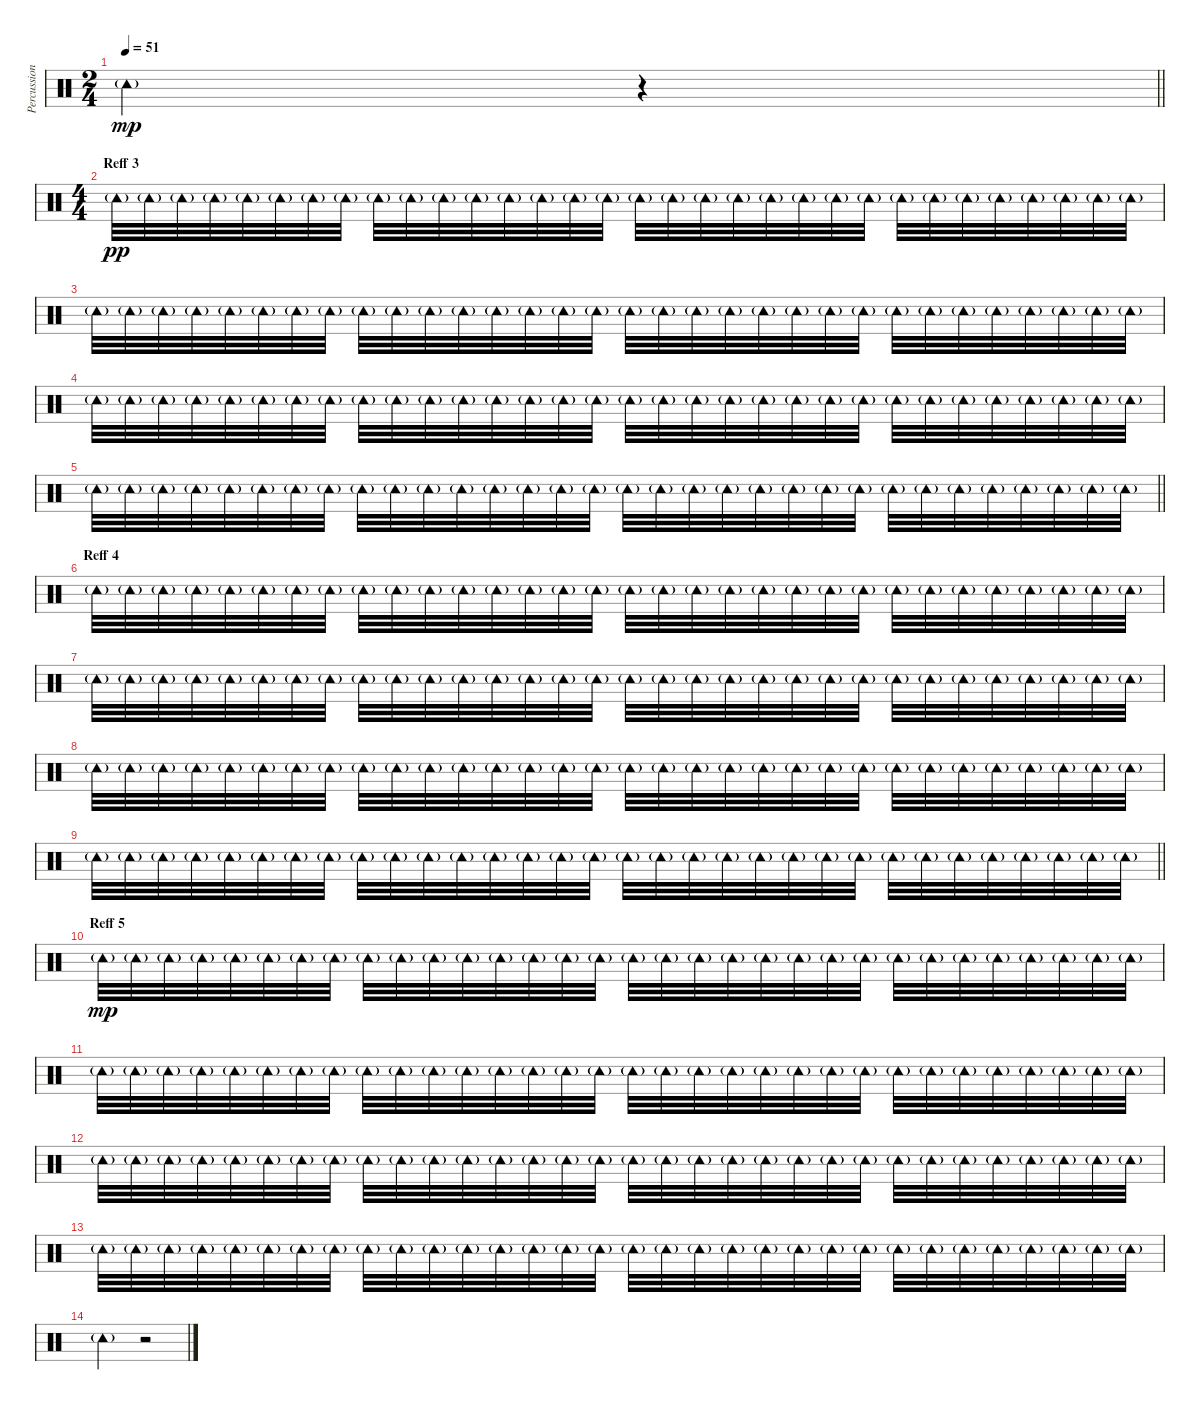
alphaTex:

\track ("Percussion 2" "Percussion") {instrument percussion}
\staff {score}
\articulation defaults
\ts (2 4)
\tempo 51
\clef neutral
\barLineRight lightlight
\ks c "Tambourine (hit)"{g}.4{dy mp}
r.4 |
\ts (4 4)
\section ("" "Reff 3")
"Tambourine (hit)"{g}.32{dy pp} "Tambourine (hit)"{g}.32 "Tambourine (hit)"{g}.32 "Tambourine (hit)"{g}.32 "Tambourine (hit)"{g}.32 "Tambourine (hit)"{g}.32 "Tambourine (hit)"{g}.32 "Tambourine (hit)"{g}.32 "Tambourine (hit)"{g}.32 "Tambourine (hit)"{g}.32 "Tambourine (hit)"{g}.32 "Tambourine (hit)"{g}.32 "Tambourine (hit)"{g}.32 "Tambourine (hit)"{g}.32 "Tambourine (hit)"{g}.32 "Tambourine (hit)"{g}.32 "Tambourine (hit)"{g}.32 "Tambourine (hit)"{g}.32 "Tambourine (hit)"{g}.32 "Tambourine (hit)"{g}.32 "Tambourine (hit)"{g}.32 "Tambourine (hit)"{g}.32 "Tambourine (hit)"{g}.32 "Tambourine (hit)"{g}.32 "Tambourine (hit)"{g}.32 "Tambourine (hit)"{g}.32 "Tambourine (hit)"{g}.32 "Tambourine (hit)"{g}.32 "Tambourine (hit)"{g}.32 "Tambourine (hit)"{g}.32 "Tambourine (hit)"{g}.32 "Tambourine (hit)"{g}.32 |
"Tambourine (hit)"{g}.32 "Tambourine (hit)"{g}.32 "Tambourine (hit)"{g}.32 "Tambourine (hit)"{g}.32 "Tambourine (hit)"{g}.32 "Tambourine (hit)"{g}.32 "Tambourine (hit)"{g}.32 "Tambourine (hit)"{g}.32 "Tambourine (hit)"{g}.32 "Tambourine (hit)"{g}.32 "Tambourine (hit)"{g}.32 "Tambourine (hit)"{g}.32 "Tambourine (hit)"{g}.32 "Tambourine (hit)"{g}.32 "Tambourine (hit)"{g}.32 "Tambourine (hit)"{g}.32 "Tambourine (hit)"{g}.32 "Tambourine (hit)"{g}.32 "Tambourine (hit)"{g}.32 "Tambourine (hit)"{g}.32 "Tambourine (hit)"{g}.32 "Tambourine (hit)"{g}.32 "Tambourine (hit)"{g}.32 "Tambourine (hit)"{g}.32 "Tambourine (hit)"{g}.32 "Tambourine (hit)"{g}.32 "Tambourine (hit)"{g}.32 "Tambourine (hit)"{g}.32 "Tambourine (hit)"{g}.32 "Tambourine (hit)"{g}.32 "Tambourine (hit)"{g}.32 "Tambourine (hit)"{g}.32 |
"Tambourine (hit)"{g}.32 "Tambourine (hit)"{g}.32 "Tambourine (hit)"{g}.32 "Tambourine (hit)"{g}.32 "Tambourine (hit)"{g}.32 "Tambourine (hit)"{g}.32 "Tambourine (hit)"{g}.32 "Tambourine (hit)"{g}.32 "Tambourine (hit)"{g}.32 "Tambourine (hit)"{g}.32 "Tambourine (hit)"{g}.32 "Tambourine (hit)"{g}.32 "Tambourine (hit)"{g}.32 "Tambourine (hit)"{g}.32 "Tambourine (hit)"{g}.32 "Tambourine (hit)"{g}.32 "Tambourine (hit)"{g}.32 "Tambourine (hit)"{g}.32 "Tambourine (hit)"{g}.32 "Tambourine (hit)"{g}.32 "Tambourine (hit)"{g}.32 "Tambourine (hit)"{g}.32 "Tambourine (hit)"{g}.32 "Tambourine (hit)"{g}.32 "Tambourine (hit)"{g}.32 "Tambourine (hit)"{g}.32 "Tambourine (hit)"{g}.32 "Tambourine (hit)"{g}.32 "Tambourine (hit)"{g}.32 "Tambourine (hit)"{g}.32 "Tambourine (hit)"{g}.32 "Tambourine (hit)"{g}.32 |
\barLineRight lightlight "Tambourine (hit)"{g}.32 "Tambourine (hit)"{g}.32 "Tambourine (hit)"{g}.32 "Tambourine (hit)"{g}.32 "Tambourine (hit)"{g}.32 "Tambourine (hit)"{g}.32 "Tambourine (hit)"{g}.32 "Tambourine (hit)"{g}.32 "Tambourine (hit)"{g}.32 "Tambourine (hit)"{g}.32 "Tambourine (hit)"{g}.32 "Tambourine (hit)"{g}.32 "Tambourine (hit)"{g}.32 "Tambourine (hit)"{g}.32 "Tambourine (hit)"{g}.32 "Tambourine (hit)"{g}.32 "Tambourine (hit)"{g}.32 "Tambourine (hit)"{g}.32 "Tambourine (hit)"{g}.32 "Tambourine (hit)"{g}.32 "Tambourine (hit)"{g}.32 "Tambourine (hit)"{g}.32 "Tambourine (hit)"{g}.32 "Tambourine (hit)"{g}.32 "Tambourine (hit)"{g}.32 "Tambourine (hit)"{g}.32 "Tambourine (hit)"{g}.32 "Tambourine (hit)"{g}.32 "Tambourine (hit)"{g}.32 "Tambourine (hit)"{g}.32 "Tambourine (hit)"{g}.32 "Tambourine (hit)"{g}.32
|
\section ("" "Reff 4")
"Tambourine (hit)"{g}.32 "Tambourine (hit)"{g}.32 "Tambourine (hit)"{g}.32 "Tambourine (hit)"{g}.32 "Tambourine (hit)"{g}.32 "Tambourine (hit)"{g}.32 "Tambourine (hit)"{g}.32 "Tambourine (hit)"{g}.32 "Tambourine (hit)"{g}.32 "Tambourine (hit)"{g}.32 "Tambourine (hit)"{g}.32 "Tambourine (hit)"{g}.32 "Tambourine (hit)"{g}.32 "Tambourine (hit)"{g}.32 "Tambourine (hit)"{g}.32 "Tambourine (hit)"{g}.32 "Tambourine (hit)"{g}.32 "Tambourine (hit)"{g}.32 "Tambourine (hit)"{g}.32 "Tambourine (hit)"{g}.32 "Tambourine (hit)"{g}.32 "Tambourine (hit)"{g}.32 "Tambourine (hit)"{g}.32 "Tambourine (hit)"{g}.32 "Tambourine (hit)"{g}.32 "Tambourine (hit)"{g}.32 "Tambourine (hit)"{g}.32 "Tambourine (hit)"{g}.32 "Tambourine (hit)"{g}.32 "Tambourine (hit)"{g}.32 "Tambourine (hit)"{g}.32 "Tambourine (hit)"{g}.32 |
"Tambourine (hit)"{g}.32 "Tambourine (hit)"{g}.32 "Tambourine (hit)"{g}.32 "Tambourine (hit)"{g}.32 "Tambourine (hit)"{g}.32 "Tambourine (hit)"{g}.32 "Tambourine (hit)"{g}.32 "Tambourine (hit)"{g}.32 "Tambourine (hit)"{g}.32 "Tambourine (hit)"{g}.32 "Tambourine (hit)"{g}.32 "Tambourine (hit)"{g}.32 "Tambourine (hit)"{g}.32 "Tambourine (hit)"{g}.32 "Tambourine (hit)"{g}.32 "Tambourine (hit)"{g}.32 "Tambourine (hit)"{g}.32 "Tambourine (hit)"{g}.32 "Tambourine (hit)"{g}.32 "Tambourine (hit)"{g}.32 "Tambourine (hit)"{g}.32 "Tambourine (hit)"{g}.32 "Tambourine (hit)"{g}.32 "Tambourine (hit)"{g}.32 "Tambourine (hit)"{g}.32 "Tambourine (hit)"{g}.32 "Tambourine (hit)"{g}.32 "Tambourine (hit)"{g}.32 "Tambourine (hit)"{g}.32 "Tambourine (hit)"{g}.32 "Tambourine (hit)"{g}.32 "Tambourine (hit)"{g}.32 |
"Tambourine (hit)"{g}.32 "Tambourine (hit)"{g}.32 "Tambourine (hit)"{g}.32 "Tambourine (hit)"{g}.32 "Tambourine (hit)"{g}.32 "Tambourine (hit)"{g}.32 "Tambourine (hit)"{g}.32 "Tambourine (hit)"{g}.32 "Tambourine (hit)"{g}.32 "Tambourine (hit)"{g}.32 "Tambourine (hit)"{g}.32 "Tambourine (hit)"{g}.32 "Tambourine (hit)"{g}.32 "Tambourine (hit)"{g}.32 "Tambourine (hit)"{g}.32 "Tambourine (hit)"{g}.32 "Tambourine (hit)"{g}.32 "Tambourine (hit)"{g}.32 "Tambourine (hit)"{g}.32 "Tambourine (hit)"{g}.32 "Tambourine (hit)"{g}.32 "Tambourine (hit)"{g}.32 "Tambourine (hit)"{g}.32 "Tambourine (hit)"{g}.32 "Tambourine (hit)"{g}.32 "Tambourine (hit)"{g}.32 "Tambourine (hit)"{g}.32 "Tambourine (hit)"{g}.32 "Tambourine (hit)"{g}.32 "Tambourine (hit)"{g}.32 "Tambourine (hit)"{g}.32 "Tambourine (hit)"{g}.32 |
\barLineRight lightlight "Tambourine (hit)"{g}.32 "Tambourine (hit)"{g}.32 "Tambourine (hit)"{g}.32 "Tambourine (hit)"{g}.32 "Tambourine (hit)"{g}.32 "Tambourine (hit)"{g}.32 "Tambourine (hit)"{g}.32 "Tambourine (hit)"{g}.32 "Tambourine (hit)"{g}.32 "Tambourine (hit)"{g}.32 "Tambourine (hit)"{g}.32 "Tambourine (hit)"{g}.32 "Tambourine (hit)"{g}.32 "Tambourine (hit)"{g}.32 "Tambourine (hit)"{g}.32 "Tambourine (hit)"{g}.32 "Tambourine (hit)"{g}.32 "Tambourine (hit)"{g}.32 "Tambourine (hit)"{g}.32 "Tambourine (hit)"{g}.32 "Tambourine (hit)"{g}.32 "Tambourine (hit)"{g}.32 "Tambourine (hit)"{g}.32 "Tambourine (hit)"{g}.32 "Tambourine (hit)"{g}.32 "Tambourine (hit)"{g}.32 "Tambourine (hit)"{g}.32 "Tambourine (hit)"{g}.32 "Tambourine (hit)"{g}.32 "Tambourine (hit)"{g}.32 "Tambourine (hit)"{g}.32 "Tambourine (hit)"{g}.32
|
\section ("" "Reff 5")
"Tambourine (hit)"{g}.32{dy mp} "Tambourine (hit)"{g}.32 "Tambourine (hit)"{g}.32 "Tambourine (hit)"{g}.32 "Tambourine (hit)"{g}.32 "Tambourine (hit)"{g}.32 "Tambourine (hit)"{g}.32 "Tambourine (hit)"{g}.32 "Tambourine (hit)"{g}.32 "Tambourine (hit)"{g}.32 "Tambourine (hit)"{g}.32 "Tambourine (hit)"{g}.32 "Tambourine (hit)"{g}.32 "Tambourine (hit)"{g}.32 "Tambourine (hit)"{g}.32 "Tambourine (hit)"{g}.32 "Tambourine (hit)"{g}.32 "Tambourine (hit)"{g}.32 "Tambourine (hit)"{g}.32 "Tambourine (hit)"{g}.32 "Tambourine (hit)"{g}.32 "Tambourine (hit)"{g}.32 "Tambourine (hit)"{g}.32 "Tambourine (hit)"{g}.32 "Tambourine (hit)"{g}.32 "Tambourine (hit)"{g}.32 "Tambourine (hit)"{g}.32 "Tambourine (hit)"{g}.32 "Tambourine (hit)"{g}.32 "Tambourine (hit)"{g}.32 "Tambourine (hit)"{g}.32 "Tambourine (hit)"{g}.32 |
"Tambourine (hit)"{g}.32 "Tambourine (hit)"{g}.32 "Tambourine (hit)"{g}.32 "Tambourine (hit)"{g}.32 "Tambourine (hit)"{g}.32 "Tambourine (hit)"{g}.32 "Tambourine (hit)"{g}.32 "Tambourine (hit)"{g}.32 "Tambourine (hit)"{g}.32 "Tambourine (hit)"{g}.32 "Tambourine (hit)"{g}.32 "Tambourine (hit)"{g}.32 "Tambourine (hit)"{g}.32 "Tambourine (hit)"{g}.32 "Tambourine (hit)"{g}.32 "Tambourine (hit)"{g}.32 "Tambourine (hit)"{g}.32 "Tambourine (hit)"{g}.32 "Tambourine (hit)"{g}.32 "Tambourine (hit)"{g}.32 "Tambourine (hit)"{g}.32 "Tambourine (hit)"{g}.32 "Tambourine (hit)"{g}.32 "Tambourine (hit)"{g}.32 "Tambourine (hit)"{g}.32 "Tambourine (hit)"{g}.32 "Tambourine (hit)"{g}.32 "Tambourine (hit)"{g}.32 "Tambourine (hit)"{g}.32 "Tambourine (hit)"{g}.32 "Tambourine (hit)"{g}.32 "Tambourine (hit)"{g}.32 |
"Tambourine (hit)"{g}.32 "Tambourine (hit)"{g}.32 "Tambourine (hit)"{g}.32 "Tambourine (hit)"{g}.32 "Tambourine (hit)"{g}.32 "Tambourine (hit)"{g}.32 "Tambourine (hit)"{g}.32 "Tambourine (hit)"{g}.32 "Tambourine (hit)"{g}.32 "Tambourine (hit)"{g}.32 "Tambourine (hit)"{g}.32 "Tambourine (hit)"{g}.32 "Tambourine (hit)"{g}.32 "Tambourine (hit)"{g}.32 "Tambourine (hit)"{g}.32 "Tambourine (hit)"{g}.32 "Tambourine (hit)"{g}.32 "Tambourine (hit)"{g}.32 "Tambourine (hit)"{g}.32 "Tambourine (hit)"{g}.32 "Tambourine (hit)"{g}.32 "Tambourine (hit)"{g}.32 "Tambourine (hit)"{g}.32 "Tambourine (hit)"{g}.32 "Tambourine (hit)"{g}.32 "Tambourine (hit)"{g}.32 "Tambourine (hit)"{g}.32 "Tambourine (hit)"{g}.32 "Tambourine (hit)"{g}.32 "Tambourine (hit)"{g}.32 "Tambourine (hit)"{g}.32 "Tambourine (hit)"{g}.32 |
"Tambourine (hit)"{g}.32 "Tambourine (hit)"{g}.32 "Tambourine (hit)"{g}.32 "Tambourine (hit)"{g}.32 "Tambourine (hit)"{g}.32 "Tambourine (hit)"{g}.32 "Tambourine (hit)"{g}.32 "Tambourine (hit)"{g}.32 "Tambourine (hit)"{g}.32 "Tambourine (hit)"{g}.32 "Tambourine (hit)"{g}.32 "Tambourine (hit)"{g}.32 "Tambourine (hit)"{g}.32 "Tambourine (hit)"{g}.32 "Tambourine (hit)"{g}.32 "Tambourine (hit)"{g}.32 "Tambourine (hit)"{g}.32 "Tambourine (hit)"{g}.32 "Tambourine (hit)"{g}.32 "Tambourine (hit)"{g}.32 "Tambourine (hit)"{g}.32 "Tambourine (hit)"{g}.32 "Tambourine (hit)"{g}.32 "Tambourine (hit)"{g}.32 "Tambourine (hit)"{g}.32 "Tambourine (hit)"{g}.32 "Tambourine (hit)"{g}.32 "Tambourine (hit)"{g}.32 "Tambourine (hit)"{g}.32 "Tambourine (hit)"{g}.32 "Tambourine (hit)"{g}.32 "Tambourine (hit)"{g}.32 |
"Tambourine (hit)"{g}.2 r.2
